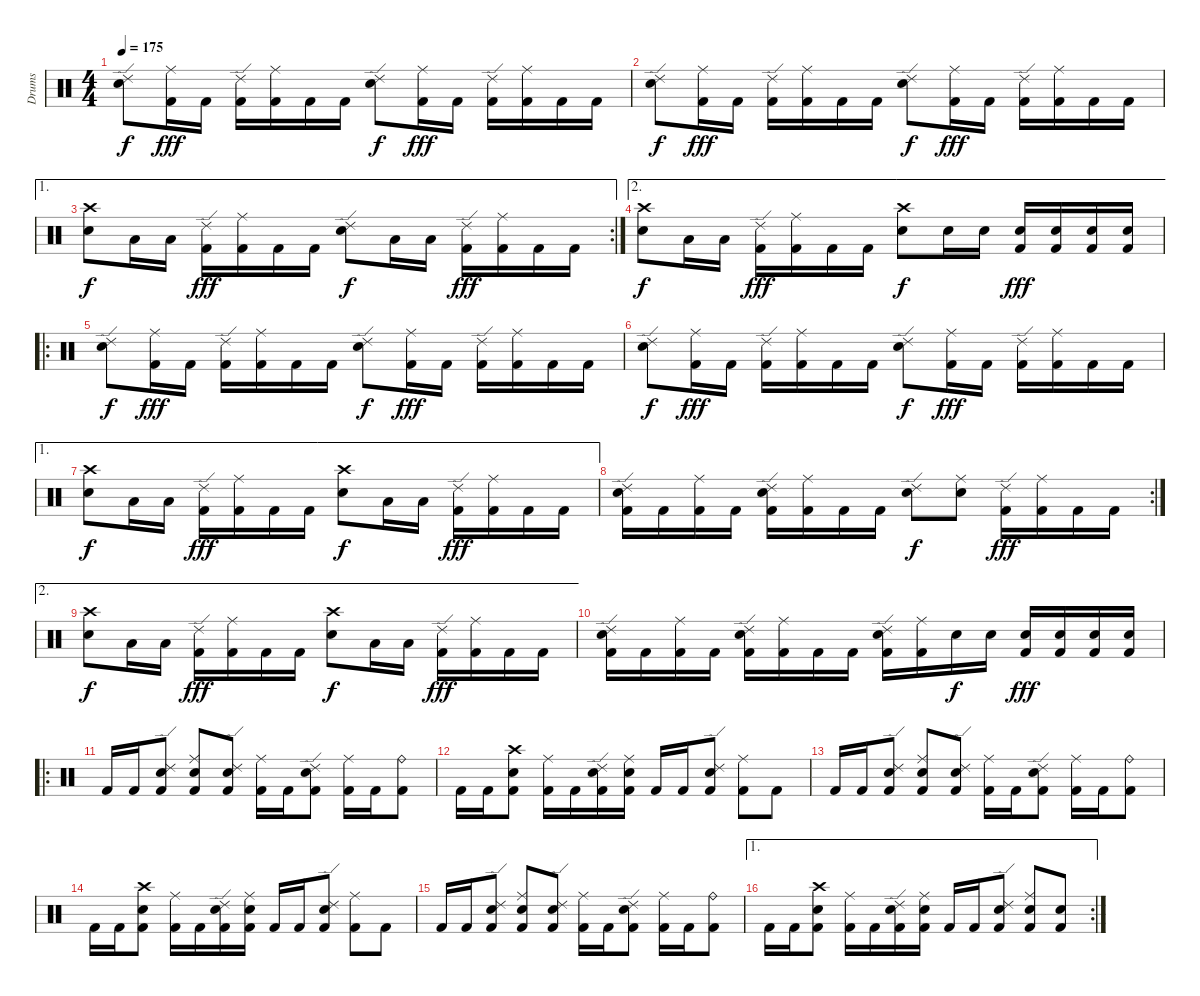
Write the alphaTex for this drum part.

\track ("Drums" "Drums") {instrument percussion}
\staff {score}
\articulation defaults
\ts (4 4)
\tempo 175
\clef neutral
\ks c
("Ride (edge) 2" "Electric Snare (hit)").8{dy f} ("Ride (middle)" "Kick (hit) 2").16{dy fff} "Kick (hit) 2".16 ("Ride (edge) 2" "Kick (hit) 2").16 ("Ride (middle)" "Kick (hit) 2").16 "Kick (hit) 2".16 "Kick (hit) 2".16 ("Ride (edge) 2" "Electric Snare (hit)").8{dy f} ("Ride (middle)" "Kick (hit) 2").16{dy fff} "Kick (hit) 2".16 ("Ride (edge) 2" "Kick (hit) 2").16 ("Ride (middle)" "Kick (hit) 2").16 "Kick (hit) 2".16 "Kick (hit) 2".16 |
("Ride (edge) 2" "Electric Snare (hit)").8{dy f} ("Ride (middle)" "Kick (hit) 2").16{dy fff} "Kick (hit) 2".16 ("Ride (edge) 2" "Kick (hit) 2").16 ("Ride (middle)" "Kick (hit) 2").16 "Kick (hit) 2".16 "Kick (hit) 2".16 ("Ride (edge) 2" "Electric Snare (hit)").8{dy f} ("Ride (middle)" "Kick (hit) 2").16{dy fff} "Kick (hit) 2".16 ("Ride (edge) 2" "Kick (hit) 2").16 ("Ride (middle)" "Kick (hit) 2").16 "Kick (hit) 2".16 "Kick (hit) 2".16 |
\ae 1
\rc 2
("Crash high (hit)" "Electric Snare (hit)").8{dy f} "Low Tom (hit)".16 "Low Tom (hit)".16 ("Ride (edge) 2" "Kick (hit) 2").16{dy fff} ("Ride (middle)" "Kick (hit) 2").16 "Kick (hit) 2".16 "Kick (hit) 2".16 ("Ride (edge) 2" "Electric Snare (hit)").8{dy f} "Low Tom (hit)".16 "Low Tom (hit)".16 ("Ride (edge) 2" "Kick (hit) 2").16{dy fff} ("Ride (middle)" "Kick (hit) 2").16 "Kick (hit) 2".16 "Kick (hit) 2".16 |
\ae 2
("Crash high (hit)" "Electric Snare (hit)").8{dy f} "Low Tom (hit)".16 "Low Tom (hit)".16 ("Ride (edge) 2" "Kick (hit) 2").16{dy fff} ("Ride (middle)" "Kick (hit) 2").16 "Kick (hit) 2".16 "Kick (hit) 2".16 ("Crash high (hit)" "Electric Snare (hit)").8{dy f} "Electric Snare (hit)".16 "Electric Snare (hit)".16 ("Electric Snare (hit)" "Kick (hit) 2").16{dy fff} ("Electric Snare (hit)" "Kick (hit) 2").16 ("Electric Snare (hit)" "Kick (hit) 2").16 ("Electric Snare (hit)" "Kick (hit) 2").16 |
\ro
("Ride (edge) 2" "Electric Snare (hit)").8{dy f} ("Ride (middle)" "Kick (hit) 2").16{dy fff} "Kick (hit) 2".16 ("Ride (edge) 2" "Kick (hit) 2").16 ("Ride (middle)" "Kick (hit) 2").16 "Kick (hit) 2".16 "Kick (hit) 2".16 ("Ride (edge) 2" "Electric Snare (hit)").8{dy f} ("Ride (middle)" "Kick (hit) 2").16{dy fff} "Kick (hit) 2".16 ("Ride (edge) 2" "Kick (hit) 2").16 ("Ride (middle)" "Kick (hit) 2").16 "Kick (hit) 2".16 "Kick (hit) 2".16 |
("Ride (edge) 2" "Electric Snare (hit)").8{dy f} ("Ride (middle)" "Kick (hit) 2").16{dy fff} "Kick (hit) 2".16 ("Ride (edge) 2" "Kick (hit) 2").16 ("Ride (middle)" "Kick (hit) 2").16 "Kick (hit) 2".16 "Kick (hit) 2".16 ("Ride (edge) 2" "Electric Snare (hit)").8{dy f} ("Ride (middle)" "Kick (hit) 2").16{dy fff} "Kick (hit) 2".16 ("Ride (edge) 2" "Kick (hit) 2").16 ("Ride (middle)" "Kick (hit) 2").16 "Kick (hit) 2".16 "Kick (hit) 2".16 |
\ae 1
("Crash high (hit)" "Electric Snare (hit)").8{dy f} "Low Tom (hit)".16 "Low Tom (hit)".16 ("Ride (edge) 2" "Kick (hit) 2").16{dy fff} ("Ride (middle)" "Kick (hit) 2").16 "Kick (hit) 2".16 "Kick (hit) 2".16 ("Crash high (hit)" "Electric Snare (hit)").8{dy f} "Low Tom (hit)".16 "Low Tom (hit)".16 ("Ride (edge) 2" "Kick (hit) 2").16{dy fff} ("Ride (middle)" "Kick (hit) 2").16 "Kick (hit) 2".16 "Kick (hit) 2".16 |
\rc 2
("Ride (edge) 2" "Electric Snare (hit)" "Kick (hit) 2").16 "Kick (hit) 2".16 ("Ride (middle)" "Kick (hit) 2").16 "Kick (hit) 2".16 ("Ride (edge) 2" "Electric Snare (hit)" "Kick (hit) 2").16 ("Ride (middle)" "Kick (hit) 2").16 "Kick (hit) 2".16 "Kick (hit) 2".16 ("Ride (edge) 2" "Electric Snare (hit)").8{dy f} ("Ride (middle)" "Electric Snare (hit)").8 ("Ride (edge) 2" "Kick (hit) 2").16{dy fff} ("Ride (middle)" "Kick (hit) 2").16 "Kick (hit) 2".16 "Kick (hit) 2".16 |
\ae 2
("Crash high (hit)" "Electric Snare (hit)").8{dy f} "Low Tom (hit)".16 "Low Tom (hit)".16 ("Ride (edge) 2" "Kick (hit) 2").16{dy fff} ("Ride (middle)" "Kick (hit) 2").16 "Kick (hit) 2".16 "Kick (hit) 2".16 ("Crash high (hit)" "Electric Snare (hit)").8{dy f} "Low Tom (hit)".16 "Low Tom (hit)".16 ("Ride (edge) 2" "Kick (hit) 2").16{dy fff} ("Ride (middle)" "Kick (hit) 2").16 "Kick (hit) 2".16 "Kick (hit) 2".16 |
("Ride (edge) 2" "Electric Snare (hit)" "Kick (hit) 2").16 "Kick (hit) 2".16 ("Ride (middle)" "Kick (hit) 2").16 "Kick (hit) 2".16 ("Ride (edge) 2" "Electric Snare (hit)" "Kick (hit) 2").16 ("Ride (middle)" "Kick (hit) 2").16 "Kick (hit) 2".16 "Kick (hit) 2".16 ("Ride (edge) 2" "Electric Snare (hit)" "Kick (hit) 2").16 ("Ride (middle)" "Kick (hit) 2").16 "Electric Snare (hit)".16{dy f} "Electric Snare (hit)".16 ("Electric Snare (hit)" "Kick (hit) 2").16{dy fff} ("Electric Snare (hit)" "Kick (hit) 2").16 ("Electric Snare (hit)" "Kick (hit) 2").16 ("Electric Snare (hit)" "Kick (hit) 2").16 |
\ro "Kick (hit) 2".16 "Kick (hit) 2".16
("Ride (edge) 2" "Electric Snare (hit)" "Kick (hit) 2").8 ("Ride (middle)" "Electric Snare (hit)" "Kick (hit) 2").8 ("Ride (edge) 2" "Electric Snare (hit)" "Kick (hit) 2").8 ("Ride (middle)" "Kick (hit) 2").16 "Kick (hit) 2".16 ("Ride (edge) 2" "Electric Snare (hit)" "Kick (hit) 2").8 ("Ride (middle)" "Kick (hit) 2").16 "Kick (hit) 2".16 ("Ride (bell)" "Kick (hit) 2").8 |
"Kick (hit) 2".16 "Kick (hit) 2".16 ("Crash high (hit)" "Electric Snare (hit)" "Kick (hit) 2").8 ("Ride (middle)" "Kick (hit) 2").16 "Kick (hit) 2".16 ("Ride (edge) 2" "Electric Snare (hit)" "Kick (hit) 2").16 ("Ride (middle)" "Electric Snare (hit)" "Kick (hit) 2").16 "Kick (hit) 2".16 "Kick (hit) 2".16 ("Ride (edge) 2" "Electric Snare (hit)" "Kick (hit) 2").8 ("Ride (middle)" "Kick (hit) 2").8 "Kick (hit) 2".8 |
"Kick (hit) 2".16 "Kick (hit) 2".16 ("Ride (edge) 2" "Electric Snare (hit)" "Kick (hit) 2").8 ("Ride (middle)" "Electric Snare (hit)" "Kick (hit) 2").8 ("Ride (edge) 2" "Electric Snare (hit)" "Kick (hit) 2").8 ("Ride (middle)" "Kick (hit) 2").16 "Kick (hit) 2".16 ("Ride (edge) 2" "Electric Snare (hit)" "Kick (hit) 2").8 ("Ride (middle)" "Kick (hit) 2").16 "Kick (hit) 2".16 ("Ride (bell)" "Kick (hit) 2").8 |
"Kick (hit) 2".16 "Kick (hit) 2".16 ("Crash high (hit)" "Electric Snare (hit)" "Kick (hit) 2").8 ("Ride (middle)" "Kick (hit) 2").16 "Kick (hit) 2".16 ("Ride (edge) 2" "Electric Snare (hit)" "Kick (hit) 2").16 ("Ride (middle)" "Electric Snare (hit)" "Kick (hit) 2").16 "Kick (hit) 2".16 "Kick (hit) 2".16 ("Ride (edge) 2" "Electric Snare (hit)" "Kick (hit) 2").8 ("Ride (middle)" "Kick (hit) 2").8 "Kick (hit) 2".8 |
"Kick (hit) 2".16 "Kick (hit) 2".16 ("Ride (edge) 2" "Electric Snare (hit)" "Kick (hit) 2").8 ("Ride (middle)" "Electric Snare (hit)" "Kick (hit) 2").8 ("Ride (edge) 2" "Electric Snare (hit)" "Kick (hit) 2").8 ("Ride (middle)" "Kick (hit) 2").16 "Kick (hit) 2".16 ("Ride (edge) 2" "Electric Snare (hit)" "Kick (hit) 2").8 ("Ride (middle)" "Kick (hit) 2").16 "Kick (hit) 2".16 ("Ride (bell)" "Kick (hit) 2").8 |
\ae 1
\rc 2 "Kick (hit) 2".16 "Kick (hit) 2".16
("Crash high (hit)" "Electric Snare (hit)" "Kick (hit) 2").8 ("Ride (middle)" "Kick (hit) 2").16 "Kick (hit) 2".16 ("Ride (edge) 2" "Electric Snare (hit)" "Kick (hit) 2").16 ("Ride (middle)" "Electric Snare (hit)" "Kick (hit) 2").16 "Kick (hit) 2".16 "Kick (hit) 2".16 ("Ride (edge) 2" "Electric Snare (hit)" "Kick (hit) 2").8 ("Ride (middle)" "Electric Snare (hit)" "Kick (hit) 2").8 ("Electric Snare (hit)" "Kick (hit) 2").8
